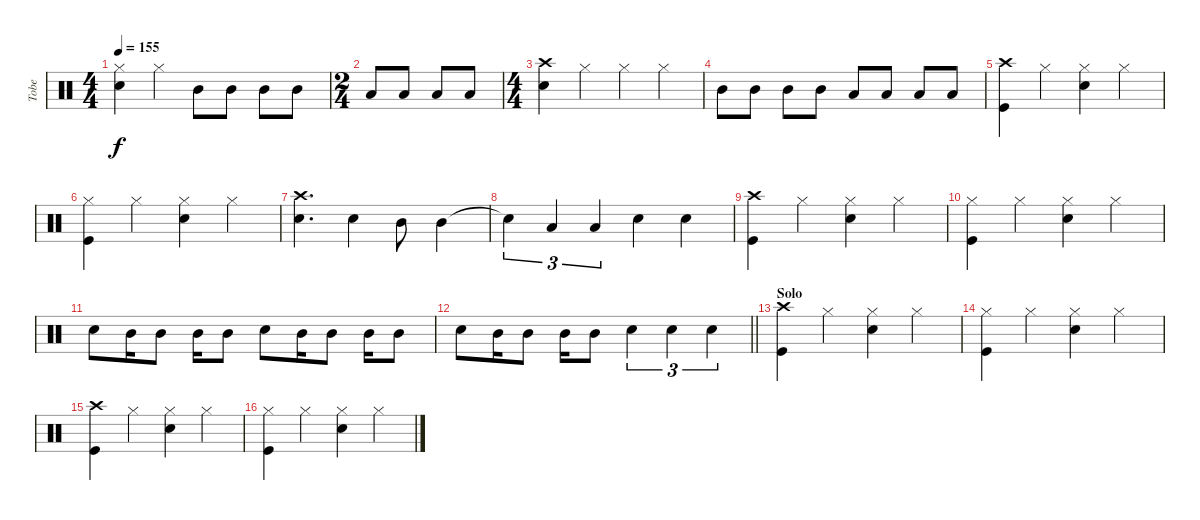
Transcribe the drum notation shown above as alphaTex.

\track ("Tobe" "Tobe") {instrument percussion}
\staff {score}
\articulation defaults
\ts (4 4)
\tempo 155
\clef neutral
\ks c
("Hi-Hat (closed)" "Electric Snare (hit)").4{dy f} "Hi-Hat (closed)".4 "Mid Tom (hit)".8 "Mid Tom (hit)".8 "Mid Tom (hit)".8 "Mid Tom (hit)".8 |
\ts (2 4)
"Low Tom (hit)".8 "Low Tom (hit)".8 "Low Tom (hit)".8 "Low Tom (hit)".8 |
\ts (4 4)
("Crash high (hit)" "Electric Snare (hit)").4 "Hi-Hat (closed)".4 "Hi-Hat (closed)".4 "Hi-Hat (closed)".4 |
"Mid Tom (hit)".8 "Mid Tom (hit)".8 "Mid Tom (hit)".8 "Mid Tom (hit)".8 "Low Tom (hit)".8 "Low Tom (hit)".8 "Low Tom (hit)".8 "Low Tom (hit)".8 |
("Crash high (hit)" "Kick (hit)").4 "Hi-Hat (closed)".4 ("Hi-Hat (closed)" "Electric Snare (hit)").4 "Hi-Hat (closed)".4 |
("Hi-Hat (closed)" "Kick (hit)").4 "Hi-Hat (closed)".4 ("Hi-Hat (closed)" "Electric Snare (hit)").4 "Hi-Hat (closed)".4 |
("Crash high (hit)" "Electric Snare (hit)").4{d} "Electric Snare (hit)".4 "Mid Tom (hit)".8 "Mid Tom (hit)".4 |
"Snare (hit)"{t}.4{tu (3 2)} "Low Tom (hit)".4{tu (3 2)} "Low Tom (hit)".4{tu (3 2)} "Electric Snare (hit)".4 "Electric Snare (hit)".4 |
("Crash high (hit)" "Kick (hit)").4 "Hi-Hat (closed)".4 ("Hi-Hat (closed)" "Electric Snare (hit)").4 "Hi-Hat (closed)".4 |
("Hi-Hat (closed)" "Kick (hit)").4 "Hi-Hat (closed)".4 ("Hi-Hat (closed)" "Electric Snare (hit)").4 "Hi-Hat (closed)".4 |
"Electric Snare (hit)".8 "Mid Tom (hit)".16 "Mid Tom (hit)".8 "Mid Tom (hit)".16 "Mid Tom (hit)".8 "Electric Snare (hit)".8 "Mid Tom (hit)".16 "Mid Tom (hit)".8 "Mid Tom (hit)".16 "Mid Tom (hit)".8 |
\barLineRight lightlight "Electric Snare (hit)".8 "Mid Tom (hit)".16 "Mid Tom (hit)".8 "Mid Tom (hit)".16 "Mid Tom (hit)".8 "Electric Snare (hit)".4{tu (3 2)} "Electric Snare (hit)".4{tu (3 2)} "Electric Snare (hit)".4{tu (3 2)}
|
\section ("" "Solo")
("Crash high (hit)" "Kick (hit)").4 "Hi-Hat (closed)".4 ("Hi-Hat (closed)" "Electric Snare (hit)").4 "Hi-Hat (closed)".4 |
("Hi-Hat (closed)" "Kick (hit)").4 "Hi-Hat (closed)".4 ("Hi-Hat (closed)" "Electric Snare (hit)").4 "Hi-Hat (closed)".4 |
("Crash high (hit)" "Kick (hit)").4 "Hi-Hat (closed)".4 ("Hi-Hat (closed)" "Electric Snare (hit)").4 "Hi-Hat (closed)".4 |
("Hi-Hat (closed)" "Kick (hit)").4 "Hi-Hat (closed)".4 ("Hi-Hat (closed)" "Electric Snare (hit)").4 "Hi-Hat (closed)".4
